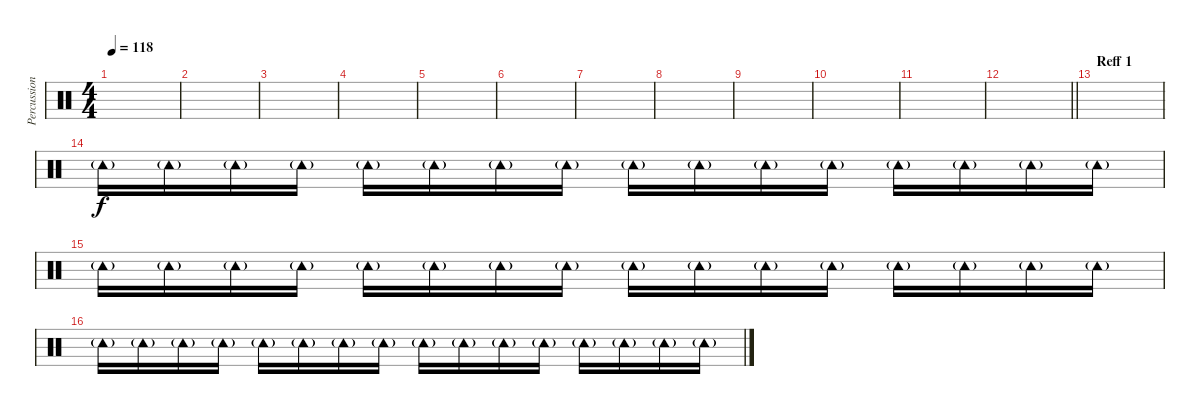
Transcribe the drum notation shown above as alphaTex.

\track ("Percussion 2" "Percussion") {instrument percussion}
\staff {score}
\articulation defaults
\ts (4 4)
\tempo 118
\clef neutral
\ks c
|
|
|
|
|
|
|
|
|
|
|
\barLineRight lightlight
|
\section ("" "Reff 1")
|
"Tambourine (hit)"{g}.16 "Tambourine (hit)"{g}.16 "Tambourine (hit)"{g}.16 "Tambourine (hit)"{g}.16 "Tambourine (hit)"{g}.16 "Tambourine (hit)"{g}.16 "Tambourine (hit)"{g}.16 "Tambourine (hit)"{g}.16 "Tambourine (hit)"{g}.16 "Tambourine (hit)"{g}.16 "Tambourine (hit)"{g}.16 "Tambourine (hit)"{g}.16 "Tambourine (hit)"{g}.16 "Tambourine (hit)"{g}.16 "Tambourine (hit)"{g}.16 "Tambourine (hit)"{g}.16 |
"Tambourine (hit)"{g}.16 "Tambourine (hit)"{g}.16 "Tambourine (hit)"{g}.16 "Tambourine (hit)"{g}.16 "Tambourine (hit)"{g}.16 "Tambourine (hit)"{g}.16 "Tambourine (hit)"{g}.16 "Tambourine (hit)"{g}.16 "Tambourine (hit)"{g}.16 "Tambourine (hit)"{g}.16 "Tambourine (hit)"{g}.16 "Tambourine (hit)"{g}.16 "Tambourine (hit)"{g}.16 "Tambourine (hit)"{g}.16 "Tambourine (hit)"{g}.16 "Tambourine (hit)"{g}.16 |
"Tambourine (hit)"{g}.16 "Tambourine (hit)"{g}.16 "Tambourine (hit)"{g}.16 "Tambourine (hit)"{g}.16 "Tambourine (hit)"{g}.16 "Tambourine (hit)"{g}.16 "Tambourine (hit)"{g}.16 "Tambourine (hit)"{g}.16 "Tambourine (hit)"{g}.16 "Tambourine (hit)"{g}.16 "Tambourine (hit)"{g}.16 "Tambourine (hit)"{g}.16 "Tambourine (hit)"{g}.16 "Tambourine (hit)"{g}.16 "Tambourine (hit)"{g}.16 "Tambourine (hit)"{g}.16
